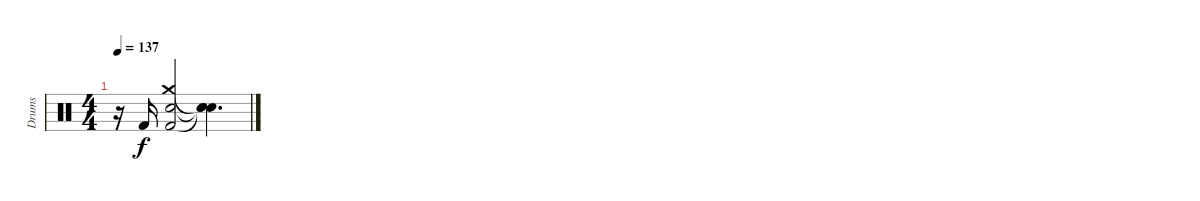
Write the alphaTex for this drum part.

\track ("Drums" "Drums") {instrument percussion}
\staff {score}
\articulation defaults
\ts (4 4)
\tempo 137
\clef neutral
\ks c
r.16{dy f} "Kick (hit) 2".16 ("Crash medium (hit)" "Snare (hit) 2" "Kick (hit) 2").2 ("Snare (hit)"{t} "Snare (hit)"{t} "Snare (hit)"{t}).4{d}
